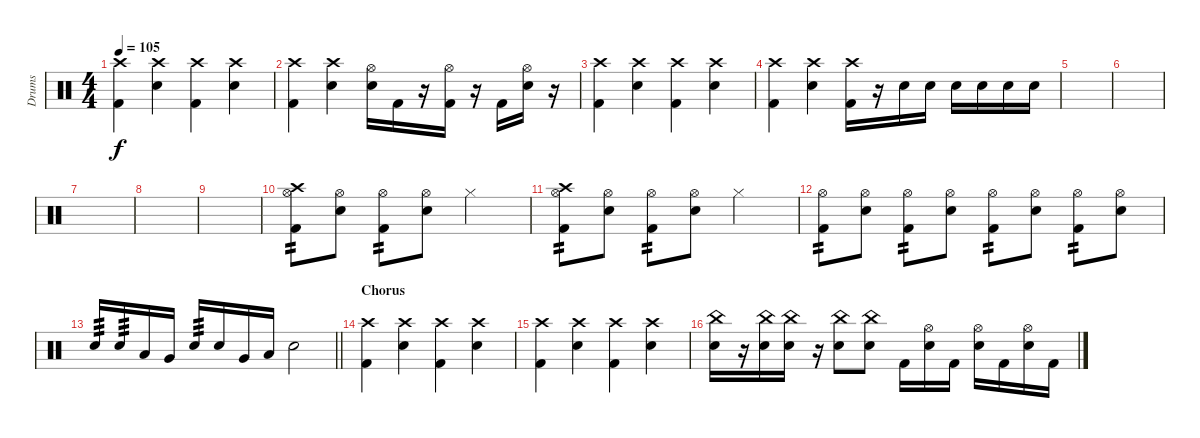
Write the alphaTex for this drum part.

\track ("Drums" "Drums") {instrument percussion}
\staff {score}
\articulation defaults
\ts (4 4)
\tempo 105
\clef neutral
\ks c
("Crash high (hit)" "Kick (hit) 2").4{dy f} ("Crash high (hit)" "Electric Snare (hit)").4 ("Crash high (hit)" "Kick (hit) 2").4 ("Crash high (hit)" "Electric Snare (hit)").4 |
("Crash high (hit)" "Kick (hit) 2").4 ("Crash high (hit)" "Electric Snare (hit)").4 ("Hi-Hat (open)" "Electric Snare (hit)").16 "Kick (hit) 2".16 r.16 ("Hi-Hat (open)" "Kick (hit) 2").16 r.16 "Kick (hit) 2".16 ("Hi-Hat (open)" "Electric Snare (hit)").16 r.16 |
("Crash high (hit)" "Kick (hit) 2").4 ("Crash high (hit)" "Electric Snare (hit)").4 ("Crash high (hit)" "Kick (hit) 2").4 ("Crash high (hit)" "Electric Snare (hit)").4 |
("Crash high (hit)" "Kick (hit) 2").4 ("Crash high (hit)" "Electric Snare (hit)").4 ("Crash high (hit)" "Kick (hit) 2").16 r.16 "Electric Snare (hit)".16 "Electric Snare (hit)".16 "Electric Snare (hit)".16 "Electric Snare (hit)".16 "Electric Snare (hit)".16 "Electric Snare (hit)".16 |
|
|
|
|
|
("Crash high (hit)" "Hi-Hat (open)" "Kick (hit) 2").8{tp 2} ("Hi-Hat (open)" "Electric Snare (hit)").8 ("Hi-Hat (open)" "Kick (hit) 2").8{tp 2} ("Hi-Hat (open)" "Electric Snare (hit)").8 "Hi-Hat (closed)".2 |
("Crash high (hit)" "Hi-Hat (open)" "Kick (hit) 2").8{tp 2} ("Hi-Hat (open)" "Electric Snare (hit)").8 ("Hi-Hat (open)" "Kick (hit) 2").8{tp 2} ("Hi-Hat (open)" "Electric Snare (hit)").8 "Hi-Hat (closed)".2 |
("Hi-Hat (open)" "Kick (hit) 2").8{tp 2} ("Hi-Hat (open)" "Electric Snare (hit)").8 ("Hi-Hat (open)" "Kick (hit) 2").8{tp 2} ("Hi-Hat (open)" "Electric Snare (hit)").8 ("Hi-Hat (open)" "Kick (hit) 2").8{tp 2} ("Hi-Hat (open)" "Electric Snare (hit)").8 ("Hi-Hat (open)" "Kick (hit) 2").8{tp 2} ("Hi-Hat (open)" "Electric Snare (hit)").8 |
\barLineRight lightlight "Electric Snare (hit)".16{tp 3} "Electric Snare (hit)".16{tp 3} "Low Tom (hit)".16 "Very Low Tom (hit)".16 "Electric Snare (hit)".16{tp 3} "Electric Snare (hit)".16 "Very Low Tom (hit)".16 "Low Floor Tom (hit)".16 "Electric Snare (hit)".2
|
\section ("" "Chorus")
("Crash high (hit)" "Kick (hit) 2").4 ("Crash high (hit)" "Electric Snare (hit)").4 ("Crash high (hit)" "Kick (hit) 2").4 ("Crash high (hit)" "Electric Snare (hit)").4 |
("Crash high (hit)" "Kick (hit) 2").4 ("Crash high (hit)" "Electric Snare (hit)").4 ("Crash high (hit)" "Kick (hit) 2").4 ("Crash high (hit)" "Electric Snare (hit)").4 |
("China (hit)" "Electric Snare (hit)").16 r.16 ("China (hit)" "Electric Snare (hit)").16 ("China (hit)" "Electric Snare (hit)").16 r.16 ("China (hit)" "Electric Snare (hit)").8 ("China (hit)" "Electric Snare (hit)").8 "Kick (hit) 2".16 ("Hi-Hat (open)" "Electric Snare (hit)").16 "Kick (hit) 2".16 ("Hi-Hat (open)" "Electric Snare (hit)").16 "Kick (hit) 2".16 ("Hi-Hat (open)" "Electric Snare (hit)").16 "Kick (hit) 2".16
